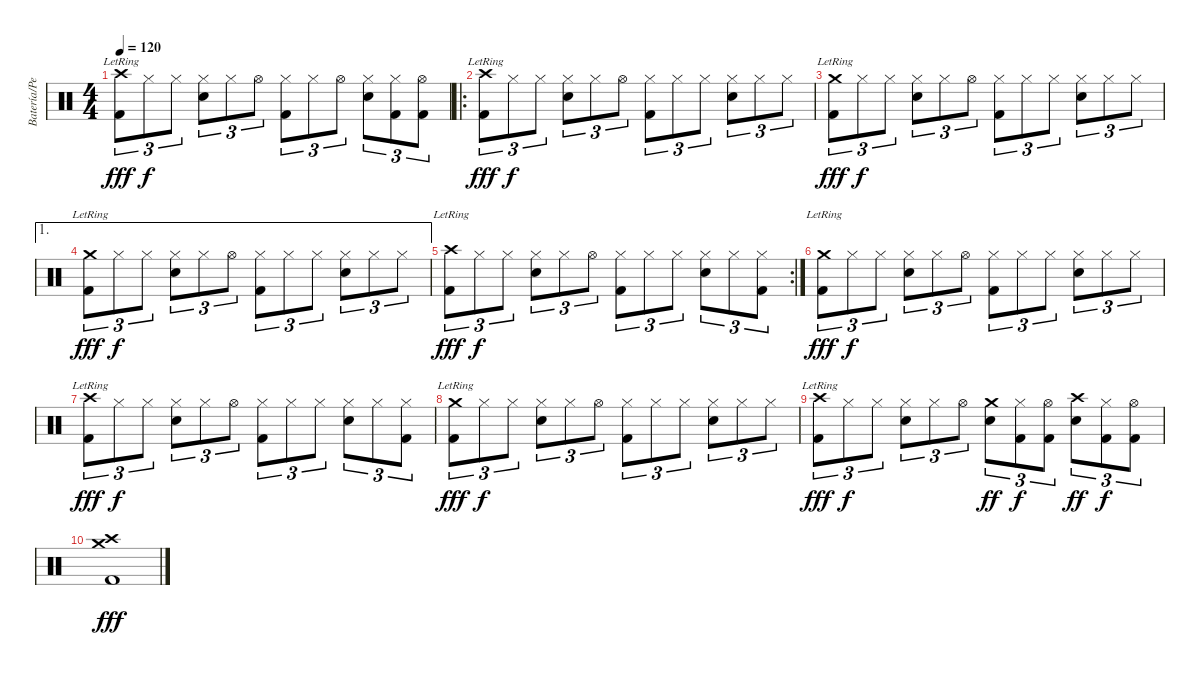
\track ("Batería/Perc." "Batería/Pe") {instrument percussion}
\staff {score}
\articulation defaults
\ts (4 4)
\tempo 120
\clef neutral
\ks c
("Crash high (hit)"{lr} "Kick (hit) 2").8{tu (3 2) dy fff volume 14} "Hi-Hat (closed)".8{tu (3 2) dy f} "Hi-Hat (closed)".8{tu (3 2)} ("Hi-Hat (closed)" "Snare (hit) 2").8{tu (3 2)} "Hi-Hat (closed)".8{tu (3 2)} "Hi-Hat (open)".8{tu (3 2)} ("Hi-Hat (closed)" "Kick (hit) 2").8{tu (3 2)} "Hi-Hat (closed)".8{tu (3 2)} "Hi-Hat (open)".8{tu (3 2)} ("Hi-Hat (closed)" "Snare (hit) 2").8{tu (3 2)} ("Hi-Hat (closed)" "Kick (hit) 2").8{tu (3 2)} ("Hi-Hat (open)" "Kick (hit) 2").8{tu (3 2)} |
\ro
("Crash high (hit)"{lr} "Kick (hit) 2").8{tu (3 2) dy fff volume 14} "Hi-Hat (closed)".8{tu (3 2) dy f} "Hi-Hat (closed)".8{tu (3 2)} ("Hi-Hat (closed)" "Snare (hit) 2").8{tu (3 2)} "Hi-Hat (closed)".8{tu (3 2)} "Hi-Hat (open)".8{tu (3 2)} ("Hi-Hat (closed)" "Kick (hit) 2").8{tu (3 2)} "Hi-Hat (closed)".8{tu (3 2)} "Hi-Hat (closed)".8{tu (3 2)} ("Hi-Hat (closed)" "Snare (hit) 2").8{tu (3 2)} "Hi-Hat (closed)".8{tu (3 2)} "Hi-Hat (closed)".8{tu (3 2)} |
("Crash medium (hit)"{lr} "Kick (hit) 2").8{tu (3 2) dy fff volume 14} "Hi-Hat (closed)".8{tu (3 2) dy f} "Hi-Hat (closed)".8{tu (3 2)} ("Hi-Hat (closed)" "Snare (hit) 2").8{tu (3 2)} "Hi-Hat (closed)".8{tu (3 2)} "Hi-Hat (open)".8{tu (3 2)} ("Hi-Hat (closed)" "Kick (hit) 2").8{tu (3 2)} "Hi-Hat (closed)".8{tu (3 2)} "Hi-Hat (closed)".8{tu (3 2)} ("Hi-Hat (closed)" "Snare (hit) 2").8{tu (3 2)} "Hi-Hat (closed)".8{tu (3 2)} "Hi-Hat (closed)".8{tu (3 2)} |
\ae 1
("Crash medium (hit)"{lr} "Kick (hit) 2").8{tu (3 2) dy fff volume 14} "Hi-Hat (closed)".8{tu (3 2) dy f} "Hi-Hat (closed)".8{tu (3 2)} ("Hi-Hat (closed)" "Snare (hit) 2").8{tu (3 2)} "Hi-Hat (closed)".8{tu (3 2)} "Hi-Hat (open)".8{tu (3 2)} ("Hi-Hat (closed)" "Kick (hit) 2").8{tu (3 2)} "Hi-Hat (closed)".8{tu (3 2)} "Hi-Hat (closed)".8{tu (3 2)} ("Hi-Hat (closed)" "Snare (hit) 2").8{tu (3 2)} "Hi-Hat (closed)".8{tu (3 2)} "Hi-Hat (closed)".8{tu (3 2)} |
\rc 2
("Crash high (hit)"{lr} "Kick (hit) 2").8{tu (3 2) dy fff volume 14} "Hi-Hat (closed)".8{tu (3 2) dy f} "Hi-Hat (closed)".8{tu (3 2)} ("Hi-Hat (closed)" "Snare (hit) 2").8{tu (3 2)} "Hi-Hat (closed)".8{tu (3 2)} "Hi-Hat (open)".8{tu (3 2)} ("Hi-Hat (closed)" "Kick (hit) 2").8{tu (3 2)} "Hi-Hat (closed)".8{tu (3 2)} "Hi-Hat (closed)".8{tu (3 2)} ("Hi-Hat (closed)" "Snare (hit) 2").8{tu (3 2)} "Hi-Hat (closed)".8{tu (3 2)} ("Hi-Hat (closed)" "Kick (hit) 2").8{tu (3 2)} |
("Crash medium (hit)"{lr} "Kick (hit) 2").8{tu (3 2) dy fff volume 14} "Hi-Hat (closed)".8{tu (3 2) dy f} "Hi-Hat (closed)".8{tu (3 2)} ("Hi-Hat (closed)" "Snare (hit) 2").8{tu (3 2)} "Hi-Hat (closed)".8{tu (3 2)} "Hi-Hat (open)".8{tu (3 2)} ("Hi-Hat (closed)" "Kick (hit) 2").8{tu (3 2)} "Hi-Hat (closed)".8{tu (3 2)} "Hi-Hat (closed)".8{tu (3 2)} ("Hi-Hat (closed)" "Snare (hit) 2").8{tu (3 2)} "Hi-Hat (closed)".8{tu (3 2)} "Hi-Hat (closed)".8{tu (3 2)} |
("Crash high (hit)"{lr} "Kick (hit) 2").8{tu (3 2) dy fff volume 14} "Hi-Hat (closed)".8{tu (3 2) dy f} "Hi-Hat (closed)".8{tu (3 2)} ("Hi-Hat (closed)" "Snare (hit) 2").8{tu (3 2)} "Hi-Hat (closed)".8{tu (3 2)} "Hi-Hat (open)".8{tu (3 2)} ("Hi-Hat (closed)" "Kick (hit) 2").8{tu (3 2)} "Hi-Hat (closed)".8{tu (3 2)} "Hi-Hat (closed)".8{tu (3 2)} ("Hi-Hat (closed)" "Snare (hit) 2").8{tu (3 2)} "Hi-Hat (closed)".8{tu (3 2)} ("Hi-Hat (closed)" "Kick (hit) 2").8{tu (3 2)} |
("Crash medium (hit)"{lr} "Kick (hit) 2").8{tu (3 2) dy fff volume 14} "Hi-Hat (closed)".8{tu (3 2) dy f} "Hi-Hat (closed)".8{tu (3 2)} ("Hi-Hat (closed)" "Snare (hit) 2").8{tu (3 2)} "Hi-Hat (closed)".8{tu (3 2)} "Hi-Hat (open)".8{tu (3 2)} ("Hi-Hat (closed)" "Kick (hit) 2").8{tu (3 2)} "Hi-Hat (closed)".8{tu (3 2)} "Hi-Hat (closed)".8{tu (3 2)} ("Hi-Hat (closed)" "Snare (hit) 2").8{tu (3 2)} "Hi-Hat (closed)".8{tu (3 2)} "Hi-Hat (closed)".8{tu (3 2)} |
("Crash high (hit)"{lr} "Kick (hit) 2").8{tu (3 2) dy fff volume 14} "Hi-Hat (closed)".8{tu (3 2) dy f} "Hi-Hat (closed)".8{tu (3 2)} ("Hi-Hat (closed)" "Snare (hit) 2").8{tu (3 2)} "Hi-Hat (closed)".8{tu (3 2)} "Hi-Hat (open)".8{tu (3 2)} ("Crash medium (hit)" "Snare (hit) 2").8{tu (3 2) dy ff} ("Hi-Hat (closed)" "Kick (hit) 2").8{tu (3 2) dy f} ("Hi-Hat (open)" "Kick (hit) 2").8{tu (3 2)} ("Crash high (hit)" "Snare (hit) 2").8{tu (3 2) dy ff} ("Hi-Hat (closed)" "Kick (hit) 2").8{tu (3 2) dy f} ("Hi-Hat (open)" "Kick (hit) 2").8{tu (3 2)} |
("Crash medium (hit)" "Kick (hit) 2" "Crash high (hit)").1{dy fff}
